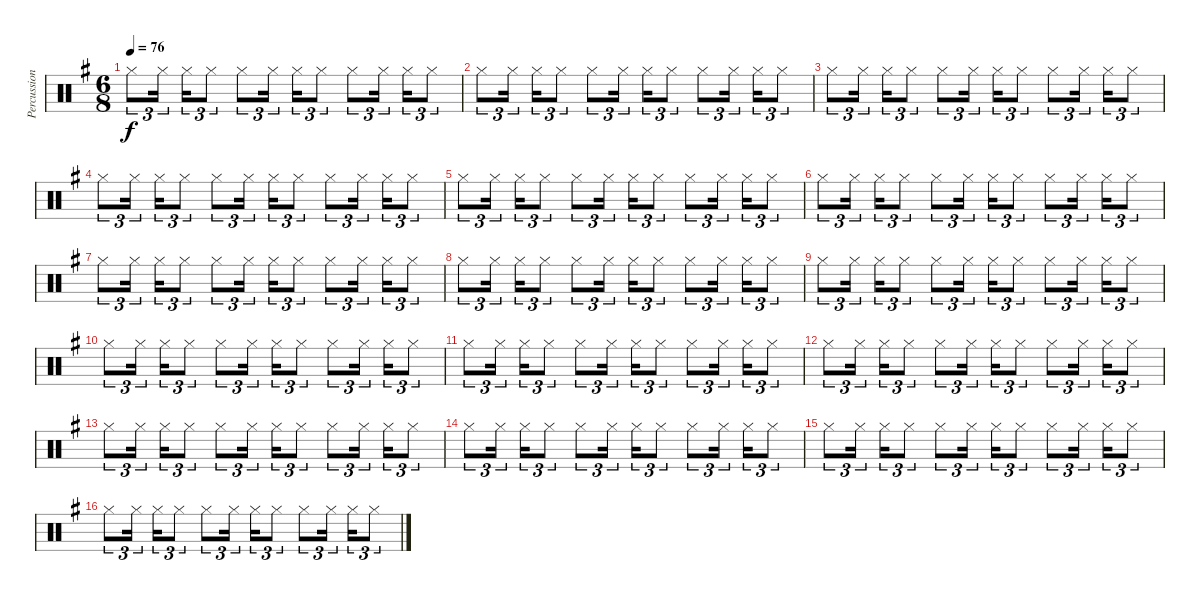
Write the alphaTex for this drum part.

\track ("Percussions 2" "Percussion") {instrument percussion}
\staff {score}
\articulation defaults
\ts (6 8)
\tempo 76
\clef neutral
\ks g "Hi-Hat (closed)".8{tu (3 2) dy f} "Hi-Hat (closed)".16{tu (3 2)} "Hi-Hat (closed)".16{tu (3 2)} "Hi-Hat (closed)".8{tu (3 2)} "Hi-Hat (closed)".8{tu (3 2)} "Hi-Hat (closed)".16{tu (3 2)} "Hi-Hat (closed)".16{tu (3 2)} "Hi-Hat (closed)".8{tu (3 2)} "Hi-Hat (closed)".8{tu (3 2)} "Hi-Hat (closed)".16{tu (3 2)} "Hi-Hat (closed)".16{tu (3 2)} "Hi-Hat (closed)".8{tu (3 2)}
|
"Hi-Hat (closed)".8{tu (3 2)} "Hi-Hat (closed)".16{tu (3 2)} "Hi-Hat (closed)".16{tu (3 2)} "Hi-Hat (closed)".8{tu (3 2)} "Hi-Hat (closed)".8{tu (3 2)} "Hi-Hat (closed)".16{tu (3 2)} "Hi-Hat (closed)".16{tu (3 2)} "Hi-Hat (closed)".8{tu (3 2)} "Hi-Hat (closed)".8{tu (3 2)} "Hi-Hat (closed)".16{tu (3 2)} "Hi-Hat (closed)".16{tu (3 2)} "Hi-Hat (closed)".8{tu (3 2)} |
"Hi-Hat (closed)".8{tu (3 2)} "Hi-Hat (closed)".16{tu (3 2)} "Hi-Hat (closed)".16{tu (3 2)} "Hi-Hat (closed)".8{tu (3 2)} "Hi-Hat (closed)".8{tu (3 2)} "Hi-Hat (closed)".16{tu (3 2)} "Hi-Hat (closed)".16{tu (3 2)} "Hi-Hat (closed)".8{tu (3 2)} "Hi-Hat (closed)".8{tu (3 2)} "Hi-Hat (closed)".16{tu (3 2)} "Hi-Hat (closed)".16{tu (3 2)} "Hi-Hat (closed)".8{tu (3 2)} |
"Hi-Hat (closed)".8{tu (3 2)} "Hi-Hat (closed)".16{tu (3 2)} "Hi-Hat (closed)".16{tu (3 2)} "Hi-Hat (closed)".8{tu (3 2)} "Hi-Hat (closed)".8{tu (3 2)} "Hi-Hat (closed)".16{tu (3 2)} "Hi-Hat (closed)".16{tu (3 2)} "Hi-Hat (closed)".8{tu (3 2)} "Hi-Hat (closed)".8{tu (3 2)} "Hi-Hat (closed)".16{tu (3 2)} "Hi-Hat (closed)".16{tu (3 2)} "Hi-Hat (closed)".8{tu (3 2)} |
"Hi-Hat (closed)".8{tu (3 2)} "Hi-Hat (closed)".16{tu (3 2)} "Hi-Hat (closed)".16{tu (3 2)} "Hi-Hat (closed)".8{tu (3 2)} "Hi-Hat (closed)".8{tu (3 2)} "Hi-Hat (closed)".16{tu (3 2)} "Hi-Hat (closed)".16{tu (3 2)} "Hi-Hat (closed)".8{tu (3 2)} "Hi-Hat (closed)".8{tu (3 2)} "Hi-Hat (closed)".16{tu (3 2)} "Hi-Hat (closed)".16{tu (3 2)} "Hi-Hat (closed)".8{tu (3 2)} |
"Hi-Hat (closed)".8{tu (3 2)} "Hi-Hat (closed)".16{tu (3 2)} "Hi-Hat (closed)".16{tu (3 2)} "Hi-Hat (closed)".8{tu (3 2)} "Hi-Hat (closed)".8{tu (3 2)} "Hi-Hat (closed)".16{tu (3 2)} "Hi-Hat (closed)".16{tu (3 2)} "Hi-Hat (closed)".8{tu (3 2)} "Hi-Hat (closed)".8{tu (3 2)} "Hi-Hat (closed)".16{tu (3 2)} "Hi-Hat (closed)".16{tu (3 2)} "Hi-Hat (closed)".8{tu (3 2)} |
"Hi-Hat (closed)".8{tu (3 2)} "Hi-Hat (closed)".16{tu (3 2)} "Hi-Hat (closed)".16{tu (3 2)} "Hi-Hat (closed)".8{tu (3 2)} "Hi-Hat (closed)".8{tu (3 2)} "Hi-Hat (closed)".16{tu (3 2)} "Hi-Hat (closed)".16{tu (3 2)} "Hi-Hat (closed)".8{tu (3 2)} "Hi-Hat (closed)".8{tu (3 2)} "Hi-Hat (closed)".16{tu (3 2)} "Hi-Hat (closed)".16{tu (3 2)} "Hi-Hat (closed)".8{tu (3 2)} |
"Hi-Hat (closed)".8{tu (3 2)} "Hi-Hat (closed)".16{tu (3 2)} "Hi-Hat (closed)".16{tu (3 2)} "Hi-Hat (closed)".8{tu (3 2)} "Hi-Hat (closed)".8{tu (3 2)} "Hi-Hat (closed)".16{tu (3 2)} "Hi-Hat (closed)".16{tu (3 2)} "Hi-Hat (closed)".8{tu (3 2)} "Hi-Hat (closed)".8{tu (3 2)} "Hi-Hat (closed)".16{tu (3 2)} "Hi-Hat (closed)".16{tu (3 2)} "Hi-Hat (closed)".8{tu (3 2)} |
"Hi-Hat (closed)".8{tu (3 2)} "Hi-Hat (closed)".16{tu (3 2)} "Hi-Hat (closed)".16{tu (3 2)} "Hi-Hat (closed)".8{tu (3 2)} "Hi-Hat (closed)".8{tu (3 2)} "Hi-Hat (closed)".16{tu (3 2)} "Hi-Hat (closed)".16{tu (3 2)} "Hi-Hat (closed)".8{tu (3 2)} "Hi-Hat (closed)".8{tu (3 2)} "Hi-Hat (closed)".16{tu (3 2)} "Hi-Hat (closed)".16{tu (3 2)} "Hi-Hat (closed)".8{tu (3 2)} |
"Hi-Hat (closed)".8{tu (3 2)} "Hi-Hat (closed)".16{tu (3 2)} "Hi-Hat (closed)".16{tu (3 2)} "Hi-Hat (closed)".8{tu (3 2)} "Hi-Hat (closed)".8{tu (3 2)} "Hi-Hat (closed)".16{tu (3 2)} "Hi-Hat (closed)".16{tu (3 2)} "Hi-Hat (closed)".8{tu (3 2)} "Hi-Hat (closed)".8{tu (3 2)} "Hi-Hat (closed)".16{tu (3 2)} "Hi-Hat (closed)".16{tu (3 2)} "Hi-Hat (closed)".8{tu (3 2)} |
"Hi-Hat (closed)".8{tu (3 2)} "Hi-Hat (closed)".16{tu (3 2)} "Hi-Hat (closed)".16{tu (3 2)} "Hi-Hat (closed)".8{tu (3 2)} "Hi-Hat (closed)".8{tu (3 2)} "Hi-Hat (closed)".16{tu (3 2)} "Hi-Hat (closed)".16{tu (3 2)} "Hi-Hat (closed)".8{tu (3 2)} "Hi-Hat (closed)".8{tu (3 2)} "Hi-Hat (closed)".16{tu (3 2)} "Hi-Hat (closed)".16{tu (3 2)} "Hi-Hat (closed)".8{tu (3 2)} |
"Hi-Hat (closed)".8{tu (3 2)} "Hi-Hat (closed)".16{tu (3 2)} "Hi-Hat (closed)".16{tu (3 2)} "Hi-Hat (closed)".8{tu (3 2)} "Hi-Hat (closed)".8{tu (3 2)} "Hi-Hat (closed)".16{tu (3 2)} "Hi-Hat (closed)".16{tu (3 2)} "Hi-Hat (closed)".8{tu (3 2)} "Hi-Hat (closed)".8{tu (3 2)} "Hi-Hat (closed)".16{tu (3 2)} "Hi-Hat (closed)".16{tu (3 2)} "Hi-Hat (closed)".8{tu (3 2)} |
"Hi-Hat (closed)".8{tu (3 2)} "Hi-Hat (closed)".16{tu (3 2)} "Hi-Hat (closed)".16{tu (3 2)} "Hi-Hat (closed)".8{tu (3 2)} "Hi-Hat (closed)".8{tu (3 2)} "Hi-Hat (closed)".16{tu (3 2)} "Hi-Hat (closed)".16{tu (3 2)} "Hi-Hat (closed)".8{tu (3 2)} "Hi-Hat (closed)".8{tu (3 2)} "Hi-Hat (closed)".16{tu (3 2)} "Hi-Hat (closed)".16{tu (3 2)} "Hi-Hat (closed)".8{tu (3 2)} |
"Hi-Hat (closed)".8{tu (3 2)} "Hi-Hat (closed)".16{tu (3 2)} "Hi-Hat (closed)".16{tu (3 2)} "Hi-Hat (closed)".8{tu (3 2)} "Hi-Hat (closed)".8{tu (3 2)} "Hi-Hat (closed)".16{tu (3 2)} "Hi-Hat (closed)".16{tu (3 2)} "Hi-Hat (closed)".8{tu (3 2)} "Hi-Hat (closed)".8{tu (3 2)} "Hi-Hat (closed)".16{tu (3 2)} "Hi-Hat (closed)".16{tu (3 2)} "Hi-Hat (closed)".8{tu (3 2)} |
"Hi-Hat (closed)".8{tu (3 2)} "Hi-Hat (closed)".16{tu (3 2)} "Hi-Hat (closed)".16{tu (3 2)} "Hi-Hat (closed)".8{tu (3 2)} "Hi-Hat (closed)".8{tu (3 2)} "Hi-Hat (closed)".16{tu (3 2)} "Hi-Hat (closed)".16{tu (3 2)} "Hi-Hat (closed)".8{tu (3 2)} "Hi-Hat (closed)".8{tu (3 2)} "Hi-Hat (closed)".16{tu (3 2)} "Hi-Hat (closed)".16{tu (3 2)} "Hi-Hat (closed)".8{tu (3 2)} |
"Hi-Hat (closed)".8{tu (3 2)} "Hi-Hat (closed)".16{tu (3 2)} "Hi-Hat (closed)".16{tu (3 2)} "Hi-Hat (closed)".8{tu (3 2)} "Hi-Hat (closed)".8{tu (3 2)} "Hi-Hat (closed)".16{tu (3 2)} "Hi-Hat (closed)".16{tu (3 2)} "Hi-Hat (closed)".8{tu (3 2)} "Hi-Hat (closed)".8{tu (3 2)} "Hi-Hat (closed)".16{tu (3 2)} "Hi-Hat (closed)".16{tu (3 2)} "Hi-Hat (closed)".8{tu (3 2)}
